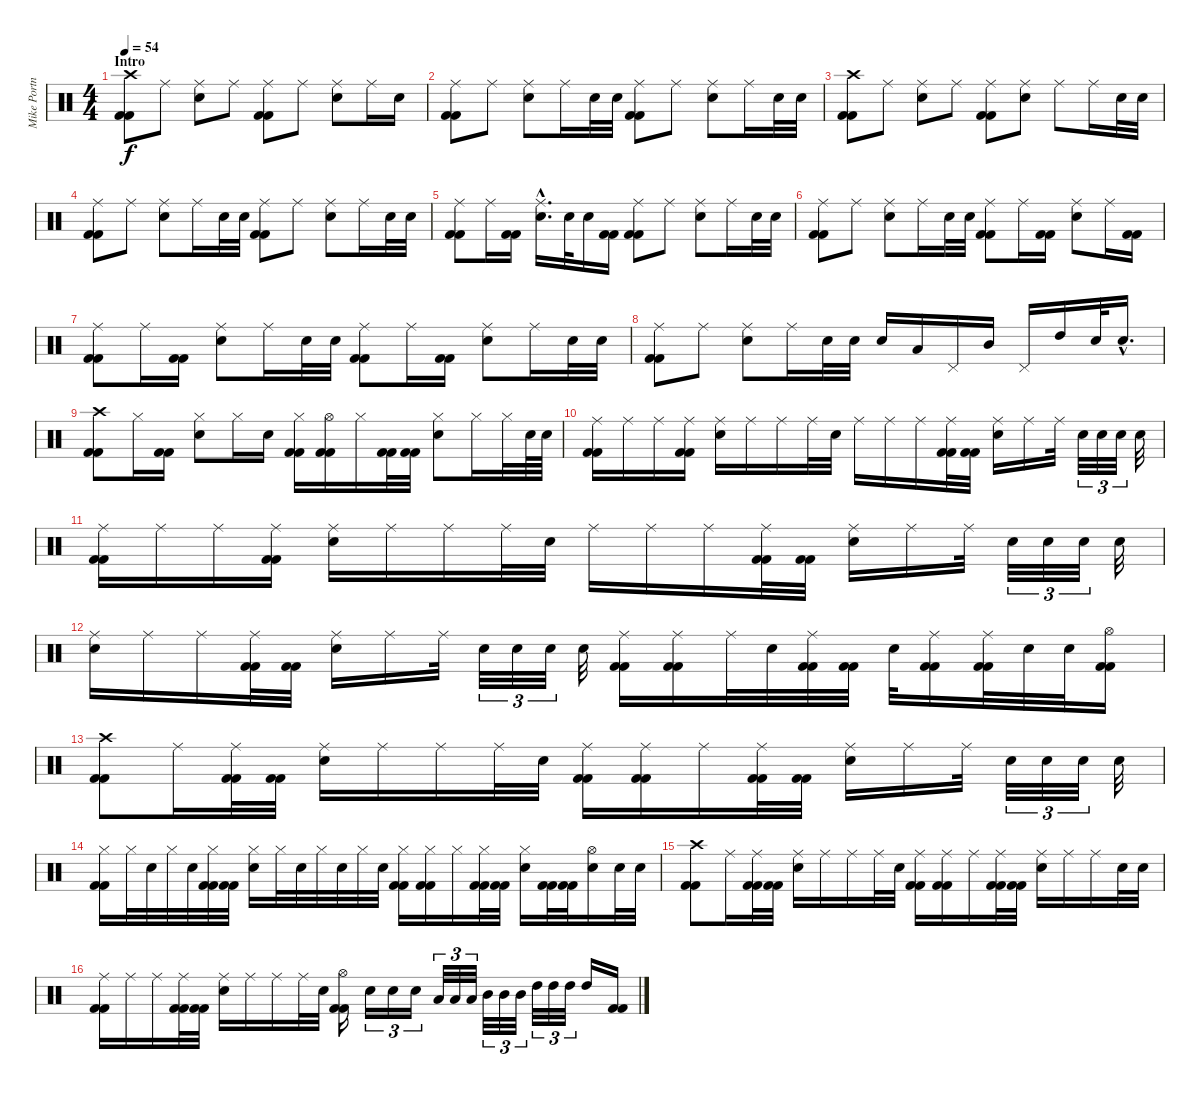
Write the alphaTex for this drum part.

\track ("Mike Portnoy - Drums" "Mike Portn") {instrument percussion}
\staff {score}
\articulation defaults
\ts (4 4)
\section ("" "Intro")
\tempo 54
\clef neutral
\ks c
("Crash high (hit)" "Kick (hit) 2" "Kick (hit) 2").8{dy f} "Ride (middle)".8 ("Ride (middle)" "Snare (hit) 2").8 "Ride (middle)".8 ("Ride (middle)" "Kick (hit) 2" "Kick (hit) 2").8 "Ride (middle)".8 ("Ride (middle)" "Snare (hit) 2").8 "Ride (middle)".16 "Snare (hit) 2".16 |
("Ride (middle)" "Kick (hit) 2" "Kick (hit) 2").8 "Ride (middle)".8 ("Ride (middle)" "Snare (hit) 2").8 "Ride (middle)".16 "Snare (hit) 2".32 "Snare (hit) 2".32 ("Ride (middle)" "Kick (hit) 2" "Kick (hit) 2").8 "Ride (middle)".8 ("Ride (middle)" "Snare (hit) 2").8 "Ride (middle)".16 "Snare (hit) 2".32 "Snare (hit) 2".32 |
("Crash high (hit)" "Kick (hit) 2" "Kick (hit) 2").8 "Ride (middle)".8 ("Ride (middle)" "Snare (hit) 2").8 "Ride (middle)".8 ("Ride (middle)" "Kick (hit) 2" "Kick (hit) 2").8 ("Ride (middle)" "Snare (hit) 2").8 "Ride (middle)".8 "Ride (middle)".16 "Snare (hit) 2".32 "Snare (hit) 2".32 |
("Ride (middle)" "Kick (hit) 2" "Kick (hit) 2").8 "Ride (middle)".8 ("Ride (middle)" "Snare (hit) 2").8 "Ride (middle)".16 "Snare (hit) 2".32 "Snare (hit) 2".32 ("Ride (middle)" "Kick (hit) 2" "Kick (hit) 2").8 "Ride (middle)".8 ("Ride (middle)" "Snare (hit) 2").8 "Ride (middle)".16 "Snare (hit) 2".32 "Snare (hit) 2".32 |
("Ride (middle)" "Kick (hit) 2" "Kick (hit) 2").8 "Ride (middle)".16 ("Kick (hit) 2" "Kick (hit) 2").16 ("Ride (middle)"{hac} "Snare (hit) 2"{hac}).16{d} "Snare (hit) 2".32 "Snare (hit) 2".16 ("Kick (hit) 2" "Kick (hit) 2").16 ("Ride (middle)" "Kick (hit) 2" "Kick (hit) 2").8 "Ride (middle)".8 ("Ride (middle)" "Snare (hit) 2").8 "Ride (middle)".16 "Snare (hit) 2".32 "Snare (hit) 2".32 |
("Ride (middle)" "Kick (hit) 2" "Kick (hit) 2").8 "Ride (middle)".8 ("Ride (middle)" "Snare (hit) 2").8 "Ride (middle)".16 "Snare (hit) 2".32 "Snare (hit) 2".32 ("Ride (middle)" "Kick (hit) 2" "Kick (hit) 2").8 "Ride (middle)".16 ("Kick (hit) 2" "Kick (hit) 2").16 ("Ride (middle)" "Snare (hit) 2").8 "Ride (middle)".16 ("Kick (hit) 2" "Kick (hit) 2").16 |
("Ride (middle)" "Kick (hit) 2" "Kick (hit) 2").8 "Ride (middle)".16 ("Kick (hit) 2" "Kick (hit) 2").16 ("Ride (middle)" "Snare (hit) 2").8 "Ride (middle)".16 "Snare (hit) 2".32 "Snare (hit) 2".32 ("Ride (middle)" "Kick (hit) 2" "Kick (hit) 2").8 "Ride (middle)".16 ("Kick (hit) 2" "Kick (hit) 2").16 ("Ride (middle)" "Snare (hit) 2").8 "Ride (middle)".16 "Snare (hit) 2".32 "Snare (hit) 2".32 |
("Ride (middle)" "Kick (hit) 2" "Kick (hit) 2").8 "Ride (middle)".8 ("Ride (middle)" "Snare (hit) 2").8 "Ride (middle)".16 "Snare (hit) 2".32 "Snare (hit) 2".32 "Snare (hit) 2".16 "Low Tom (hit)".16 "Pedal Hi-Hat (hit)".16 "Mid Tom (hit)".16 "Pedal Hi-Hat (hit)".16 "High Tom (hit)".16 "Snare (hit) 2".32 "Snare (hit) 2"{hac}.16{d} |
("Crash high (hit)" "Kick (hit) 2" "Kick (hit) 2").8 "Hi-Hat (closed)".16 ("Kick (hit) 2" "Kick (hit) 2").16 ("Hi-Hat (closed)" "Snare (hit) 2").8 "Hi-Hat (closed)".16 "Snare (hit) 2".16 ("Hi-Hat (closed)" "Kick (hit) 2" "Kick (hit) 2").16 ("Hi-Hat (open)" "Kick (hit) 2" "Kick (hit) 2").16 "Hi-Hat (closed)".16 ("Kick (hit) 2" "Kick (hit) 2").32 ("Kick (hit) 2" "Kick (hit) 2").32 ("Hi-Hat (closed)" "Snare (hit) 2").8 "Hi-Hat (closed)".16 "Hi-Hat (closed)".32 "Snare (hit) 2".64 "Snare (hit) 2".64 |
("Ride (middle)" "Kick (hit) 2" "Kick (hit) 2").16 "Ride (middle)".16 "Ride (middle)".16 ("Ride (middle)" "Kick (hit) 2" "Kick (hit) 2").16 ("Ride (middle)" "Snare (hit) 2").16 "Ride (middle)".16 "Ride (middle)".16 "Ride (middle)".32 "Snare (hit) 2".32 "Ride (middle)".16 "Ride (middle)".16 "Ride (middle)".16 ("Ride (middle)" "Kick (hit) 2" "Kick (hit) 2").32 ("Kick (hit) 2" "Kick (hit) 2").32 ("Ride (middle)" "Snare (hit) 2").16 "Ride (middle)".16 "Ride (middle)".32 "Snare (hit) 2".32{tu (3 2)} "Snare (hit) 2".32{tu (3 2)} "Snare (hit) 2".32{tu (3 2)} "Snare (hit) 2".32 |
("Ride (middle)" "Kick (hit) 2" "Kick (hit) 2").16 "Ride (middle)".16 "Ride (middle)".16 ("Ride (middle)" "Kick (hit) 2" "Kick (hit) 2").16 ("Ride (middle)" "Snare (hit) 2").16 "Ride (middle)".16 "Ride (middle)".16 "Ride (middle)".32 "Snare (hit) 2".32 "Ride (middle)".16 "Ride (middle)".16 "Ride (middle)".16 ("Ride (middle)" "Kick (hit) 2" "Kick (hit) 2").32 ("Kick (hit) 2" "Kick (hit) 2").32 ("Ride (middle)" "Snare (hit) 2").16 "Ride (middle)".16 "Ride (middle)".32 "Snare (hit) 2".32{tu (3 2)} "Snare (hit) 2".32{tu (3 2)} "Snare (hit) 2".32{tu (3 2)} "Snare (hit) 2".32 |
("Ride (middle)" "Snare (hit) 2").16 "Ride (middle)".16 "Ride (middle)".16 ("Ride (middle)" "Kick (hit) 2" "Kick (hit) 2").32 ("Kick (hit) 2" "Kick (hit) 2").32 ("Ride (middle)" "Snare (hit) 2").16 "Ride (middle)".16 "Ride (middle)".32 "Snare (hit) 2".32{tu (3 2)} "Snare (hit) 2".32{tu (3 2)} "Snare (hit) 2".32{tu (3 2)} "Snare (hit) 2".32 ("Ride (middle)" "Kick (hit) 2" "Kick (hit) 2").16 ("Ride (middle)" "Kick (hit) 2" "Kick (hit) 2").16 "Ride (middle)".32 "Snare (hit) 2".32 ("Ride (middle)" "Kick (hit) 2" "Kick (hit) 2").32 ("Kick (hit) 2" "Kick (hit) 2").32 "Snare (hit) 2".32 ("Ride (middle)" "Kick (hit) 2" "Kick (hit) 2").16 ("Ride (middle)" "Kick (hit) 2" "Kick (hit) 2").32 "Snare (hit) 2".32 "Snare (hit) 2".32 ("Hi-Hat (open)" "Kick (hit) 2" "Kick (hit) 2").16 |
("Crash high (hit)" "Kick (hit) 2" "Kick (hit) 2").8 "Ride (middle)".16 ("Ride (middle)" "Kick (hit) 2" "Kick (hit) 2").32 ("Kick (hit) 2" "Kick (hit) 2").32 ("Ride (middle)" "Snare (hit) 2").16 "Ride (middle)".16 "Ride (middle)".16 "Ride (middle)".32 "Snare (hit) 2".32 ("Ride (middle)" "Kick (hit) 2" "Kick (hit) 2").16 ("Ride (middle)" "Kick (hit) 2" "Kick (hit) 2").16 "Ride (middle)".16 ("Ride (middle)" "Kick (hit) 2" "Kick (hit) 2").32 ("Kick (hit) 2" "Kick (hit) 2").32 ("Ride (middle)" "Snare (hit) 2").16 "Ride (middle)".16 "Ride (middle)".32 "Snare (hit) 2".32{tu (3 2)} "Snare (hit) 2".32{tu (3 2)} "Snare (hit) 2".32{tu (3 2)} "Snare (hit) 2".32 |
("Hi-Hat (closed)" "Kick (hit) 2" "Kick (hit) 2").16 "Hi-Hat (closed)".32 "Snare (hit) 2".32 "Hi-Hat (closed)".32 "Snare (hit) 2".32 ("Hi-Hat (closed)" "Kick (hit) 2" "Kick (hit) 2").32 ("Kick (hit) 2" "Kick (hit) 2").32 ("Hi-Hat (closed)" "Snare (hit) 2").16 "Hi-Hat (closed)".32 "Snare (hit) 2".32 "Hi-Hat (closed)".32 "Snare (hit) 2".32 "Hi-Hat (closed)".32 "Snare (hit) 2".32 ("Hi-Hat (closed)" "Kick (hit) 2" "Kick (hit) 2").16 ("Hi-Hat (closed)" "Kick (hit) 2" "Kick (hit) 2").16 "Hi-Hat (closed)".16 ("Hi-Hat (closed)" "Kick (hit) 2" "Kick (hit) 2").32 ("Kick (hit) 2" "Kick (hit) 2").32 ("Hi-Hat (closed)" "Snare (hit) 2").16 ("Kick (hit) 2" "Kick (hit) 2").32 ("Kick (hit) 2" "Kick (hit) 2").32 ("Hi-Hat (open)" "Snare (hit) 2").16 "Snare (hit) 2".32 "Snare (hit) 2".32 |
("Crash high (hit)" "Kick (hit) 2" "Kick (hit) 2").8 "Ride (middle)".16 ("Ride (middle)" "Kick (hit) 2" "Kick (hit) 2").32 ("Kick (hit) 2" "Kick (hit) 2").32 ("Ride (middle)" "Snare (hit) 2").16 "Ride (middle)".16 "Ride (middle)".16 "Ride (middle)".32 "Snare (hit) 2".32 ("Ride (middle)" "Kick (hit) 2" "Kick (hit) 2").16 ("Ride (middle)" "Kick (hit) 2" "Kick (hit) 2").16 "Ride (middle)".16 ("Ride (middle)" "Kick (hit) 2" "Kick (hit) 2").32 ("Kick (hit) 2" "Kick (hit) 2").32 ("Ride (middle)" "Snare (hit) 2").16 "Ride (middle)".16 "Ride (middle)".16 "Snare (hit) 2".32 "Snare (hit) 2".32 |
("Ride (middle)" "Kick (hit) 2" "Kick (hit) 2").16 "Ride (middle)".16 "Ride (middle)".16 ("Ride (middle)" "Kick (hit) 2" "Kick (hit) 2").32 ("Kick (hit) 2" "Kick (hit) 2").32 ("Ride (middle)" "Snare (hit) 2").16 "Ride (middle)".16 "Ride (middle)".16 "Ride (middle)".32 "Snare (hit) 2".32 ("Hi-Hat (open)" "Kick (hit) 2" "Kick (hit) 2").16 "Snare (hit) 2".16{tu (3 2)} "Snare (hit) 2".16{tu (3 2)} "Snare (hit) 2".16{tu (3 2)} "Low Tom (hit)".32{tu (3 2)} "Low Tom (hit)".32{tu (3 2)} "Low Tom (hit)".32{tu (3 2)} "Mid Tom (hit)".32{tu (3 2)} "Mid Tom (hit)".32{tu (3 2)} "Mid Tom (hit)".32{tu (3 2)} "High Tom (hit)".32{tu (3 2)} "High Tom (hit)".32{tu (3 2)} "High Tom (hit)".32{tu (3 2)} "High Tom (hit)".16 ("Kick (hit) 2" "Kick (hit) 2").16
